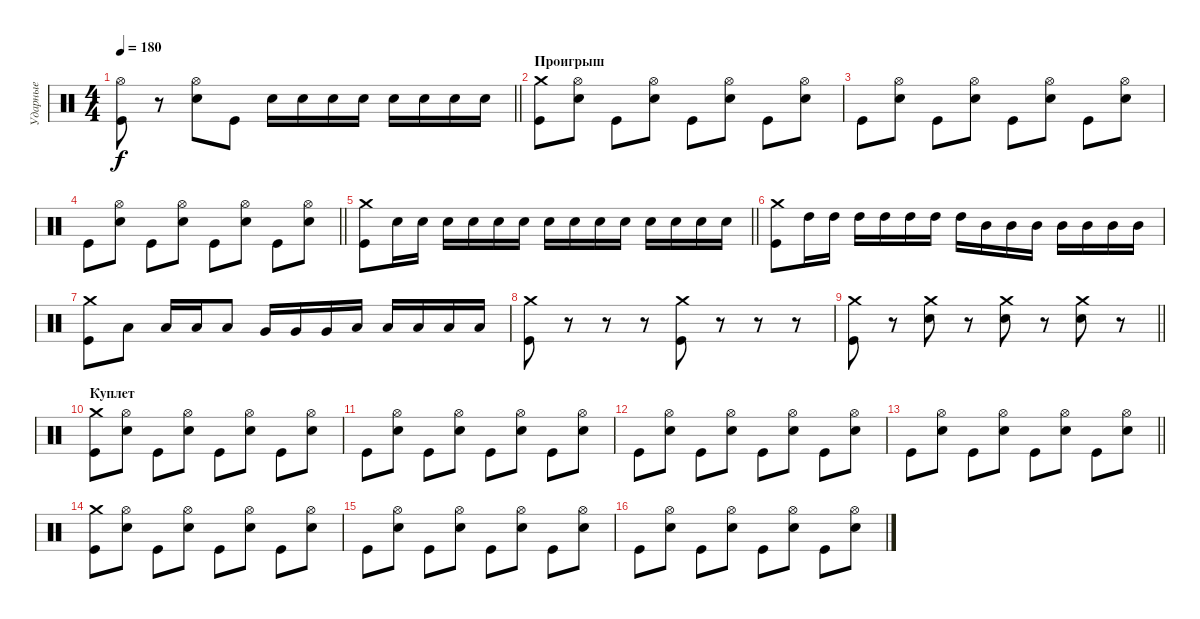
\track ("Ударные" "Ударные") {instrument percussion}
\staff {score}
\articulation defaults
\ts (4 4)
\tempo 180
\clef neutral
\barLineRight lightlight
\ks c
("Hi-Hat (open)" "Kick (hit)").8{dy f} r.8 ("Hi-Hat (open)" "Electric Snare (hit)").8 "Kick (hit)".8 "Electric Snare (hit)".16 "Electric Snare (hit)".16 "Electric Snare (hit)".16 "Electric Snare (hit)".16 "Electric Snare (hit)".16 "Electric Snare (hit)".16 "Electric Snare (hit)".16 "Electric Snare (hit)".16 |
\section ("" "Проигрыш")
("Crash medium (hit)" "Kick (hit)").8 ("Hi-Hat (open)" "Electric Snare (hit)").8 "Kick (hit)".8 ("Hi-Hat (open)" "Electric Snare (hit)").8 "Kick (hit)".8 ("Hi-Hat (open)" "Electric Snare (hit)").8 "Kick (hit)".8 ("Hi-Hat (open)" "Electric Snare (hit)").8 |
"Kick (hit)".8 ("Hi-Hat (open)" "Electric Snare (hit)").8 "Kick (hit)".8 ("Hi-Hat (open)" "Electric Snare (hit)").8 "Kick (hit)".8 ("Hi-Hat (open)" "Electric Snare (hit)").8 "Kick (hit)".8 ("Hi-Hat (open)" "Electric Snare (hit)").8 |
\barLineRight lightlight "Kick (hit)".8
("Hi-Hat (open)" "Electric Snare (hit)").8 "Kick (hit)".8 ("Hi-Hat (open)" "Electric Snare (hit)").8 "Kick (hit)".8 ("Hi-Hat (open)" "Electric Snare (hit)").8 "Kick (hit)".8 ("Hi-Hat (open)" "Electric Snare (hit)").8 |
\section ("" " ")
\barLineRight lightlight
("Crash medium (hit)" "Kick (hit)").8 "Electric Snare (hit)".16 "Electric Snare (hit)".16 "Electric Snare (hit)".16 "Electric Snare (hit)".16 "Electric Snare (hit)".16 "Electric Snare (hit)".16 "Electric Snare (hit)".16 "Electric Snare (hit)".16 "Electric Snare (hit)".16 "Electric Snare (hit)".16 "Electric Snare (hit)".16 "Electric Snare (hit)".16 "Electric Snare (hit)".16 "Electric Snare (hit)".16 |
("Crash medium (hit)" "Kick (hit)").8 "High Tom (hit)".16 "High Tom (hit)".16 "High Tom (hit)".16 "High Tom (hit)".16 "High Tom (hit)".16 "High Tom (hit)".16 "High Tom (hit)".16 "Mid Tom (hit)".16 "Mid Tom (hit)".16 "Mid Tom (hit)".16 "Mid Tom (hit)".16 "Mid Tom (hit)".16 "Mid Tom (hit)".16 "Mid Tom (hit)".16 |
("Crash medium (hit)" "Kick (hit)").8 "Low Tom (hit)".8 "Low Tom (hit)".16 "Low Tom (hit)".16 "Low Tom (hit)".8 "Very Low Tom (hit)".16 "Very Low Tom (hit)".16 "Very Low Tom (hit)".16 "Low Floor Tom (hit)".16 "Low Floor Tom (hit)".16 "Low Floor Tom (hit)".16 "Low Floor Tom (hit)".16 "Low Floor Tom (hit)".16 |
("Crash medium (hit)" "Kick (hit)").8 r.8 r.8 r.8 ("Crash medium (hit)" "Kick (hit)").8 r.8 r.8 r.8 |
\barLineRight lightlight
("Crash medium (hit)" "Kick (hit)").8 r.8 ("Crash medium (hit)" "Electric Snare (hit)").8 r.8 ("Crash medium (hit)" "Electric Snare (hit)").8 r.8 ("Crash medium (hit)" "Electric Snare (hit)").8 r.8 |
\section ("" "Куплет")
("Crash medium (hit)" "Kick (hit)").8 ("Hi-Hat (open)" "Electric Snare (hit)").8 "Kick (hit)".8 ("Hi-Hat (open)" "Electric Snare (hit)").8 "Kick (hit)".8 ("Hi-Hat (open)" "Electric Snare (hit)").8 "Kick (hit)".8 ("Hi-Hat (open)" "Electric Snare (hit)").8 |
"Kick (hit)".8 ("Hi-Hat (open)" "Electric Snare (hit)").8 "Kick (hit)".8 ("Hi-Hat (open)" "Electric Snare (hit)").8 "Kick (hit)".8 ("Hi-Hat (open)" "Electric Snare (hit)").8 "Kick (hit)".8 ("Hi-Hat (open)" "Electric Snare (hit)").8 |
"Kick (hit)".8 ("Hi-Hat (open)" "Electric Snare (hit)").8 "Kick (hit)".8 ("Hi-Hat (open)" "Electric Snare (hit)").8 "Kick (hit)".8 ("Hi-Hat (open)" "Electric Snare (hit)").8 "Kick (hit)".8 ("Hi-Hat (open)" "Electric Snare (hit)").8 |
\barLineRight lightlight "Kick (hit)".8
("Hi-Hat (open)" "Electric Snare (hit)").8 "Kick (hit)".8 ("Hi-Hat (open)" "Electric Snare (hit)").8 "Kick (hit)".8 ("Hi-Hat (open)" "Electric Snare (hit)").8 "Kick (hit)".8 ("Hi-Hat (open)" "Electric Snare (hit)").8 |
("Crash medium (hit)" "Kick (hit)").8 ("Hi-Hat (open)" "Electric Snare (hit)").8 "Kick (hit)".8 ("Hi-Hat (open)" "Electric Snare (hit)").8 "Kick (hit)".8 ("Hi-Hat (open)" "Electric Snare (hit)").8 "Kick (hit)".8 ("Hi-Hat (open)" "Electric Snare (hit)").8 |
"Kick (hit)".8 ("Hi-Hat (open)" "Electric Snare (hit)").8 "Kick (hit)".8 ("Hi-Hat (open)" "Electric Snare (hit)").8 "Kick (hit)".8 ("Hi-Hat (open)" "Electric Snare (hit)").8 "Kick (hit)".8 ("Hi-Hat (open)" "Electric Snare (hit)").8 |
"Kick (hit)".8 ("Hi-Hat (open)" "Electric Snare (hit)").8 "Kick (hit)".8 ("Hi-Hat (open)" "Electric Snare (hit)").8 "Kick (hit)".8 ("Hi-Hat (open)" "Electric Snare (hit)").8 "Kick (hit)".8 ("Hi-Hat (open)" "Electric Snare (hit)").8
